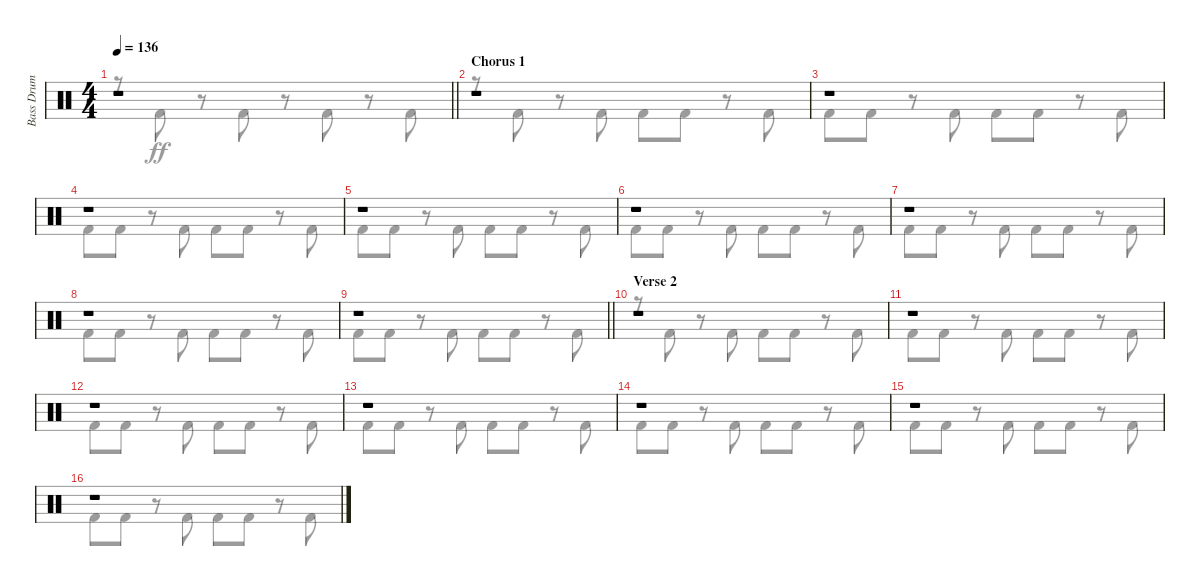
\track ("Bass Drum" "Bass Drum") {instrument percussion}
\staff {score}
\articulation defaults
\voice
\ts (4 4)
\tempo 136
\clef neutral
\barLineRight lightlight
\ks c
r.1{dy f} |
\section ("" "Chorus 1")
r.1 |
r.1 |
r.1 |
r.1 |
r.1 |
r.1 |
r.1 |
\barLineRight lightlight
r.1 |
\section ("" "Verse 2")
r.1 |
r.1 |
r.1 |
r.1 |
r.1 |
r.1 |
r.1
\voice
\clef neutral
\ottava regular
\simile none
\barLineRight lightlight
\ks c
r.8{dy ff} "Kick (hit) 2".8 r.8 "Kick (hit) 2".8 r.8 "Kick (hit) 2".8 r.8 "Kick (hit) 2".8 |
r.8 "Kick (hit) 2".8 r.8 "Kick (hit) 2".8 "Kick (hit) 2".8 "Kick (hit) 2".8 r.8 "Kick (hit) 2".8 |
"Kick (hit) 2".8 "Kick (hit) 2".8 r.8 "Kick (hit) 2".8 "Kick (hit) 2".8 "Kick (hit) 2".8 r.8 "Kick (hit) 2".8 |
"Kick (hit) 2".8 "Kick (hit) 2".8 r.8 "Kick (hit) 2".8 "Kick (hit) 2".8 "Kick (hit) 2".8 r.8 "Kick (hit) 2".8 |
"Kick (hit) 2".8 "Kick (hit) 2".8 r.8 "Kick (hit) 2".8 "Kick (hit) 2".8 "Kick (hit) 2".8 r.8 "Kick (hit) 2".8 |
"Kick (hit) 2".8 "Kick (hit) 2".8 r.8 "Kick (hit) 2".8 "Kick (hit) 2".8 "Kick (hit) 2".8 r.8 "Kick (hit) 2".8 |
"Kick (hit) 2".8 "Kick (hit) 2".8 r.8 "Kick (hit) 2".8 "Kick (hit) 2".8 "Kick (hit) 2".8 r.8 "Kick (hit) 2".8 |
"Kick (hit) 2".8 "Kick (hit) 2".8 r.8 "Kick (hit) 2".8 "Kick (hit) 2".8 "Kick (hit) 2".8 r.8 "Kick (hit) 2".8 |
\barLineRight lightlight "Kick (hit) 2".8 "Kick (hit) 2".8
r.8 "Kick (hit) 2".8 "Kick (hit) 2".8 "Kick (hit) 2".8 r.8 "Kick (hit) 2".8 |
r.8 "Kick (hit) 2".8 r.8 "Kick (hit) 2".8 "Kick (hit) 2".8 "Kick (hit) 2".8 r.8 "Kick (hit) 2".8 |
"Kick (hit) 2".8 "Kick (hit) 2".8 r.8 "Kick (hit) 2".8 "Kick (hit) 2".8 "Kick (hit) 2".8 r.8 "Kick (hit) 2".8 |
"Kick (hit) 2".8 "Kick (hit) 2".8 r.8 "Kick (hit) 2".8 "Kick (hit) 2".8 "Kick (hit) 2".8 r.8 "Kick (hit) 2".8 |
"Kick (hit) 2".8 "Kick (hit) 2".8 r.8 "Kick (hit) 2".8 "Kick (hit) 2".8 "Kick (hit) 2".8 r.8 "Kick (hit) 2".8 |
"Kick (hit) 2".8 "Kick (hit) 2".8 r.8 "Kick (hit) 2".8 "Kick (hit) 2".8 "Kick (hit) 2".8 r.8 "Kick (hit) 2".8 |
"Kick (hit) 2".8 "Kick (hit) 2".8 r.8 "Kick (hit) 2".8 "Kick (hit) 2".8 "Kick (hit) 2".8 r.8 "Kick (hit) 2".8 |
"Kick (hit) 2".8 "Kick (hit) 2".8 r.8 "Kick (hit) 2".8 "Kick (hit) 2".8 "Kick (hit) 2".8 r.8 "Kick (hit) 2".8
